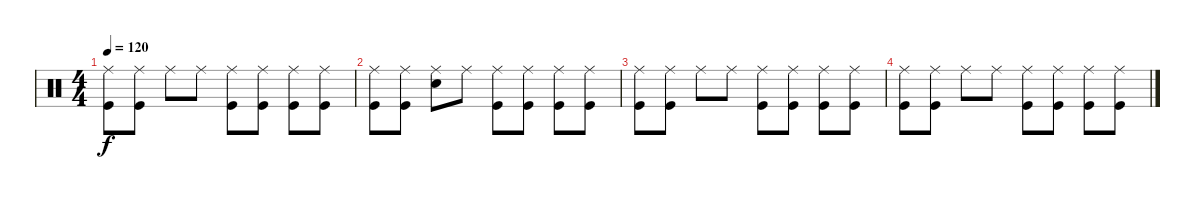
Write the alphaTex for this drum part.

\track "" {instrument percussion}
\staff {score}
\articulation defaults
\ts (4 4)
\tempo 120
\clef neutral
\ks c
("Ride (middle)" "Kick (hit)").8{dy f} ("Ride (middle)" "Kick (hit)").8 "Ride (middle)".8 "Ride (middle)".8 ("Ride (middle)" "Kick (hit)").8 ("Ride (middle)" "Kick (hit)").8 ("Ride (middle)" "Kick (hit)").8 ("Ride (middle)" "Kick (hit)").8 |
("Ride (middle)" "Kick (hit)").8 ("Ride (middle)" "Kick (hit)").8 ("Ride (middle)" "Snare (hit) 2").8 "Ride (middle)".8 ("Ride (middle)" "Kick (hit)").8 ("Ride (middle)" "Kick (hit)").8 ("Ride (middle)" "Kick (hit)").8 ("Ride (middle)" "Kick (hit)").8 |
("Ride (middle)" "Kick (hit)").8 ("Ride (middle)" "Kick (hit)").8 "Ride (middle)".8 "Ride (middle)".8 ("Ride (middle)" "Kick (hit)").8 ("Ride (middle)" "Kick (hit)").8 ("Ride (middle)" "Kick (hit)").8 ("Ride (middle)" "Kick (hit)").8 |
("Ride (middle)" "Kick (hit)").8 ("Ride (middle)" "Kick (hit)").8 "Ride (middle)".8 "Ride (middle)".8 ("Ride (middle)" "Kick (hit)").8 ("Ride (middle)" "Kick (hit)").8 ("Ride (middle)" "Kick (hit)").8 ("Ride (middle)" "Kick (hit)").8
